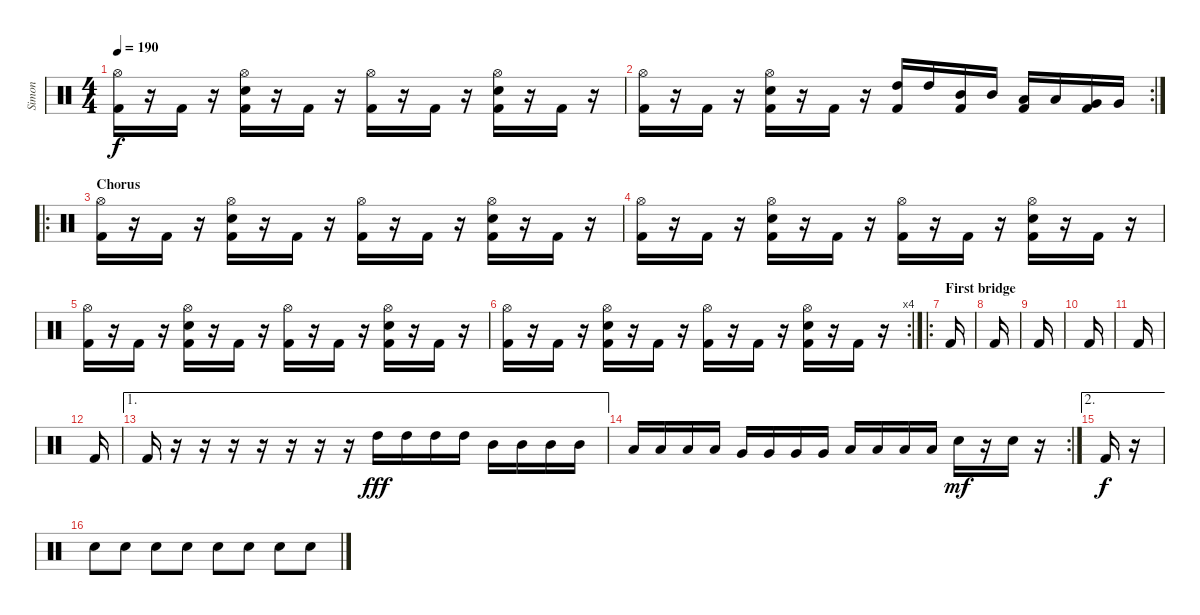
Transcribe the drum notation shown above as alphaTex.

\track ("Simon" "Simon") {instrument percussion}
\staff {score}
\articulation defaults
\ts (4 4)
\tempo 190
\clef neutral
\ks c
("Hi-Hat (open)" "Kick (hit) 2").16{dy f} r.16 "Kick (hit) 2".16 r.16 ("Hi-Hat (open)" "Snare (hit) 2" "Kick (hit) 2").16 r.16 "Kick (hit) 2".16 r.16 ("Hi-Hat (open)" "Kick (hit) 2").16 r.16 "Kick (hit) 2".16 r.16 ("Hi-Hat (open)" "Snare (hit) 2" "Kick (hit) 2").16 r.16 "Kick (hit) 2".16 r.16 |
\rc 2
("Hi-Hat (open)" "Kick (hit) 2").16 r.16 "Kick (hit) 2".16 r.16 ("Hi-Hat (open)" "Snare (hit) 2" "Kick (hit) 2").16 r.16 "Kick (hit) 2".16 r.16 ("High Tom (hit)" "Kick (hit) 2").16 "High Tom (hit)".16 ("Mid Tom (hit)" "Kick (hit) 2").16 "Mid Tom (hit)".16 ("Low Tom (hit)" "Kick (hit) 2").16 "Low Tom (hit)".16 ("Very Low Tom (hit)" "Kick (hit) 2").16 "Very Low Tom (hit)".16 |
\ro
\section ("" "Chorus")
("Hi-Hat (open)" "Kick (hit) 2").16 r.16 "Kick (hit) 2".16 r.16 ("Hi-Hat (open)" "Snare (hit) 2" "Kick (hit) 2").16 r.16 "Kick (hit) 2".16 r.16 ("Hi-Hat (open)" "Kick (hit) 2").16 r.16 "Kick (hit) 2".16 r.16 ("Hi-Hat (open)" "Snare (hit) 2" "Kick (hit) 2").16 r.16 "Kick (hit) 2".16 r.16 |
("Hi-Hat (open)" "Kick (hit) 2").16 r.16 "Kick (hit) 2".16 r.16 ("Hi-Hat (open)" "Snare (hit) 2" "Kick (hit) 2").16 r.16 "Kick (hit) 2".16 r.16 ("Hi-Hat (open)" "Kick (hit) 2").16 r.16 "Kick (hit) 2".16 r.16 ("Hi-Hat (open)" "Snare (hit) 2" "Kick (hit) 2").16 r.16 "Kick (hit) 2".16 r.16 |
("Hi-Hat (open)" "Kick (hit) 2").16 r.16 "Kick (hit) 2".16 r.16 ("Hi-Hat (open)" "Snare (hit) 2" "Kick (hit) 2").16 r.16 "Kick (hit) 2".16 r.16 ("Hi-Hat (open)" "Kick (hit) 2").16 r.16 "Kick (hit) 2".16 r.16 ("Hi-Hat (open)" "Snare (hit) 2" "Kick (hit) 2").16 r.16 "Kick (hit) 2".16 r.16 |
\rc 4
("Hi-Hat (open)" "Kick (hit) 2").16 r.16 "Kick (hit) 2".16 r.16 ("Hi-Hat (open)" "Snare (hit) 2" "Kick (hit) 2").16 r.16 "Kick (hit) 2".16 r.16 ("Hi-Hat (open)" "Kick (hit) 2").16 r.16 "Kick (hit) 2".16 r.16 ("Hi-Hat (open)" "Snare (hit) 2" "Kick (hit) 2").16 r.16 "Kick (hit) 2".16 r.16 |
\ro
\section ("" "First bridge")
"Kick (hit) 2".16 |
"Kick (hit) 2".16 |
"Kick (hit) 2".16 |
"Kick (hit) 2".16 |
"Kick (hit) 2".16 |
"Kick (hit) 2".16 |
\ae 1 "Kick (hit) 2".16
r.16 r.16 r.16 r.16 r.16 r.16 r.16 "High Tom (hit)".16{dy fff} "High Tom (hit)".16 "High Tom (hit)".16 "High Tom (hit)".16 "Mid Tom (hit)".16 "Mid Tom (hit)".16 "Mid Tom (hit)".16 "Mid Tom (hit)".16 |
\rc 2 "Low Tom (hit)".16 "Low Tom (hit)".16 "Low Tom (hit)".16 "Low Tom (hit)".16 "Very Low Tom (hit)".16 "Very Low Tom (hit)".16 "Very Low Tom (hit)".16 "Very Low Tom (hit)".16 "Low Floor Tom (hit)".16 "Low Floor Tom (hit)".16 "Low Floor Tom (hit)".16 "Low Floor Tom (hit)".16 "Snare (hit) 2".16{dy mf}
r.16 "Snare (hit) 2".16 r.16 |
\ae 2 "Kick (hit) 2".16{dy f}
r.16{volume 5} |
"Snare (hit) 2".8{volume 16} "Snare (hit) 2".8 "Snare (hit) 2".8 "Snare (hit) 2".8 "Snare (hit) 2".8 "Snare (hit) 2".8 "Snare (hit) 2".8 "Snare (hit) 2".8
